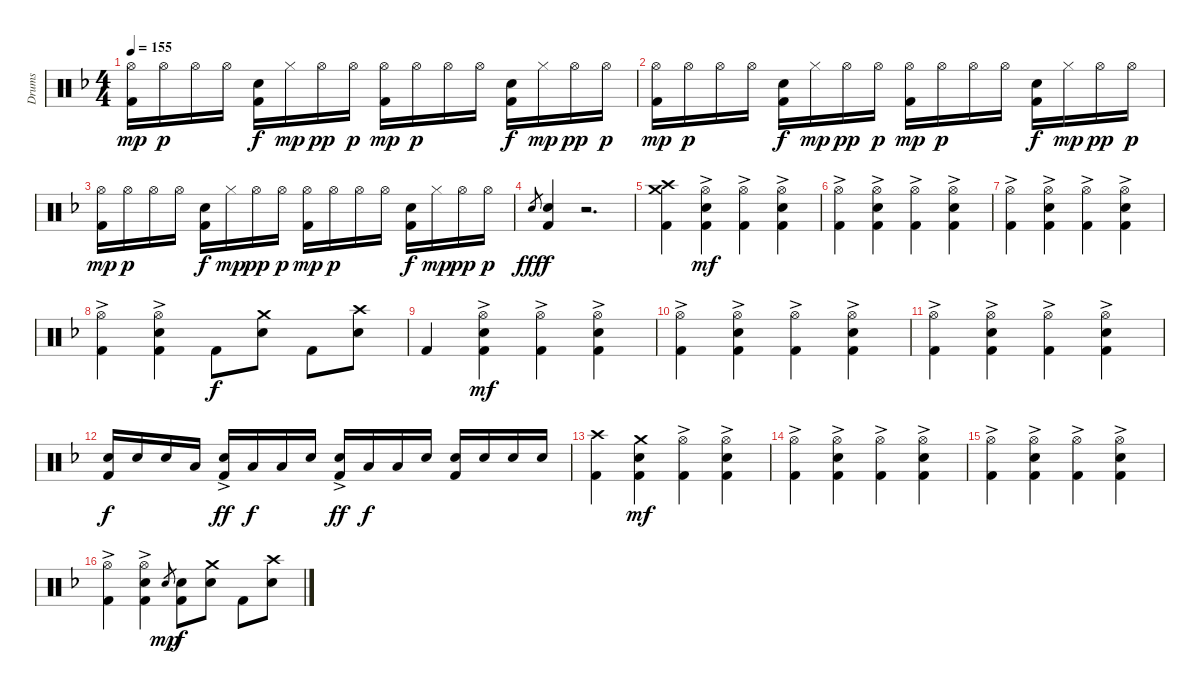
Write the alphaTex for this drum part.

\track ("Drums" "Drums") {instrument percussion}
\staff {score}
\articulation defaults
\ts (4 4)
\tempo 155
\clef neutral
\ks dminor
("Hi-Hat (open)" "Kick (hit) 2").16{dy mp} "Hi-Hat (open)".16{dy p} "Hi-Hat (open)".16 "Hi-Hat (open)".16 ("Snare (hit) 2" "Kick (hit) 2").16{dy f} "Hi-Hat (closed)".16{dy mp} "Hi-Hat (open)".16{dy pp} "Hi-Hat (open)".16{dy p} ("Hi-Hat (open)" "Kick (hit) 2").16{dy mp} "Hi-Hat (open)".16{dy p} "Hi-Hat (open)".16 "Hi-Hat (open)".16 ("Snare (hit) 2" "Kick (hit) 2").16{dy f} "Hi-Hat (closed)".16{dy mp} "Hi-Hat (open)".16{dy pp} "Hi-Hat (open)".16{dy p} |
("Hi-Hat (open)" "Kick (hit) 2").16{dy mp} "Hi-Hat (open)".16{dy p} "Hi-Hat (open)".16 "Hi-Hat (open)".16 ("Snare (hit) 2" "Kick (hit) 2").16{dy f} "Hi-Hat (closed)".16{dy mp} "Hi-Hat (open)".16{dy pp} "Hi-Hat (open)".16{dy p} ("Hi-Hat (open)" "Kick (hit) 2").16{dy mp} "Hi-Hat (open)".16{dy p} "Hi-Hat (open)".16 "Hi-Hat (open)".16 ("Snare (hit) 2" "Kick (hit) 2").16{dy f} "Hi-Hat (closed)".16{dy mp} "Hi-Hat (open)".16{dy pp} "Hi-Hat (open)".16{dy p} |
("Hi-Hat (open)" "Kick (hit) 2").16{dy mp} "Hi-Hat (open)".16{dy p} "Hi-Hat (open)".16 "Hi-Hat (open)".16 ("Snare (hit) 2" "Kick (hit) 2").16{dy f} "Hi-Hat (closed)".16{dy mp} "Hi-Hat (open)".16{dy pp} "Hi-Hat (open)".16{dy p} ("Hi-Hat (open)" "Kick (hit) 2").16{dy mp} "Hi-Hat (open)".16{dy p} "Hi-Hat (open)".16 "Hi-Hat (open)".16 ("Snare (hit) 2" "Kick (hit) 2").16{dy f} "Hi-Hat (closed)".16{dy mp} "Hi-Hat (open)".16{dy pp} "Hi-Hat (open)".16{dy p} |
"Snare (hit) 2".8{gr dy fff} ("Snare (hit) 2" "Kick (hit) 2").4{dy f} r.2{d} |
("Crash high (hit)" "Crash medium (hit)" "Kick (hit) 2").4 ("Hi-Hat (open)"{ac} "Snare (hit) 2" "Kick (hit) 2").4{dy mf} ("Hi-Hat (open)"{ac} "Kick (hit) 2").4 ("Hi-Hat (open)"{ac} "Snare (hit) 2" "Kick (hit) 2").4 |
("Hi-Hat (open)"{ac} "Kick (hit) 2").4 ("Hi-Hat (open)"{ac} "Snare (hit) 2" "Kick (hit) 2").4 ("Hi-Hat (open)"{ac} "Kick (hit) 2").4 ("Hi-Hat (open)"{ac} "Snare (hit) 2" "Kick (hit) 2").4 |
("Hi-Hat (open)"{ac} "Kick (hit) 2").4 ("Hi-Hat (open)"{ac} "Snare (hit) 2" "Kick (hit) 2").4 ("Hi-Hat (open)"{ac} "Kick (hit) 2").4 ("Hi-Hat (open)"{ac} "Snare (hit) 2" "Kick (hit) 2").4 |
("Hi-Hat (open)"{ac} "Kick (hit) 2").4 ("Hi-Hat (open)"{ac} "Snare (hit) 2" "Kick (hit) 2").4 "Kick (hit) 2".8{dy f} ("Crash medium (hit)" "Snare (hit) 2").8 "Kick (hit) 2".8 ("Crash high (hit)" "Snare (hit) 2").8 |
"Kick (hit) 2".4 ("Hi-Hat (open)"{ac} "Snare (hit) 2" "Kick (hit) 2").4{dy mf} ("Hi-Hat (open)"{ac} "Kick (hit) 2").4 ("Hi-Hat (open)"{ac} "Snare (hit) 2" "Kick (hit) 2").4 |
("Hi-Hat (open)"{ac} "Kick (hit) 2").4 ("Hi-Hat (open)"{ac} "Snare (hit) 2" "Kick (hit) 2").4 ("Hi-Hat (open)"{ac} "Kick (hit) 2").4 ("Hi-Hat (open)"{ac} "Snare (hit) 2" "Kick (hit) 2").4 |
("Hi-Hat (open)"{ac} "Kick (hit) 2").4 ("Hi-Hat (open)"{ac} "Snare (hit) 2" "Kick (hit) 2").4 ("Hi-Hat (open)"{ac} "Kick (hit) 2").4 ("Hi-Hat (open)"{ac} "Snare (hit) 2" "Kick (hit) 2").4 |
("Snare (hit) 2" "Kick (hit) 2").16{dy f} "Snare (hit) 2".16 "Snare (hit) 2".16 "Low Tom (hit)".16 ("Snare (hit) 2"{ac} "Kick (hit) 2").16{dy ff} "Low Tom (hit)".16{dy f} "Low Tom (hit)".16 "Snare (hit) 2".16 ("Snare (hit) 2"{ac} "Kick (hit) 2").16{dy ff} "Low Tom (hit)".16{dy f} "Low Tom (hit)".16 "Snare (hit) 2".16 ("Snare (hit) 2" "Kick (hit) 2").16 "Snare (hit) 2".16 "Snare (hit) 2".16 "Snare (hit) 2".16 |
("Crash high (hit)" "Kick (hit) 2").4 ("Crash medium (hit)" "Snare (hit) 2" "Kick (hit) 2").4{dy mf} ("Hi-Hat (open)"{ac} "Kick (hit) 2").4 ("Hi-Hat (open)"{ac} "Snare (hit) 2" "Kick (hit) 2").4 |
("Hi-Hat (open)"{ac} "Kick (hit) 2").4 ("Hi-Hat (open)"{ac} "Snare (hit) 2" "Kick (hit) 2").4 ("Hi-Hat (open)"{ac} "Kick (hit) 2").4 ("Hi-Hat (open)"{ac} "Snare (hit) 2" "Kick (hit) 2").4 |
("Hi-Hat (open)"{ac} "Kick (hit) 2").4 ("Hi-Hat (open)"{ac} "Snare (hit) 2" "Kick (hit) 2").4 ("Hi-Hat (open)"{ac} "Kick (hit) 2").4 ("Hi-Hat (open)"{ac} "Snare (hit) 2" "Kick (hit) 2").4 |
("Hi-Hat (open)"{ac} "Kick (hit) 2").4 ("Hi-Hat (open)"{ac} "Snare (hit) 2" "Kick (hit) 2").4 "Snare (hit) 2".8{gr dy mp} ("Snare (hit) 2" "Kick (hit) 2").8{dy f} ("Crash medium (hit)" "Snare (hit) 2").8 "Kick (hit) 2".8 ("Crash high (hit)" "Snare (hit) 2").8
